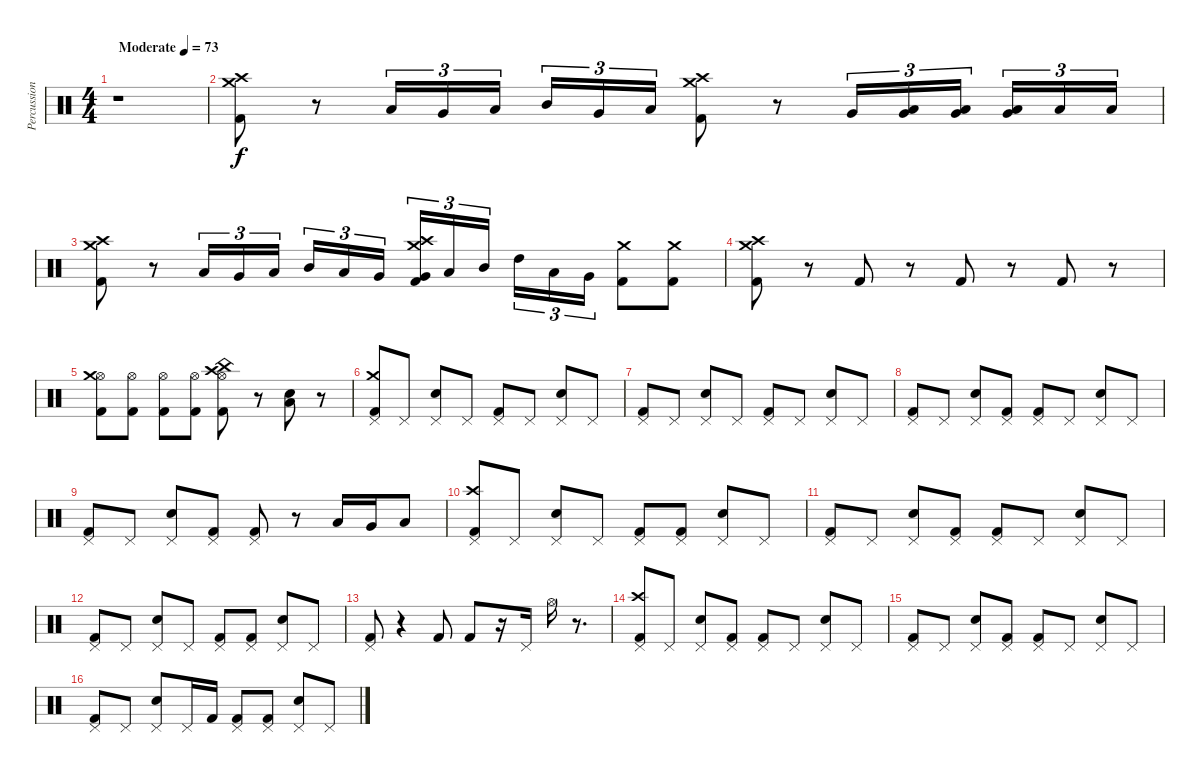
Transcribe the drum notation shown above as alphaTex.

\track ("Percussions" "Percussion") {instrument percussion}
\staff {score}
\articulation defaults
\ts (4 4)
\tempo (73 "Moderate")
\clef neutral
\ks c
r.1{dy f} |
("Kick (hit) 2" "Crash high (hit)" "Crash medium (hit)").8 r.8 "Low Floor Tom (hit)".16{tu (3 2)} "Very Low Tom (hit)".16{tu (3 2)} "Low Tom (hit)".16{tu (3 2) beam splitsecondary} "Mid Tom (hit)".16{tu (3 2)} "Very Low Tom (hit)".16{tu (3 2)} "Low Floor Tom (hit)".16{tu (3 2)} ("Kick (hit) 2" "Crash high (hit)" "Crash medium (hit)").8 r.8 "Very Low Tom (hit)".16{tu (3 2)} ("Very Low Tom (hit)" "Low Floor Tom (hit)").16{tu (3 2)} ("Low Tom (hit)" "Very Low Tom (hit)").16{tu (3 2) beam splitsecondary} ("Very Low Tom (hit)" "Low Floor Tom (hit)").16{tu (3 2)} "Low Tom (hit)".16{tu (3 2)} "Low Floor Tom (hit)".16{tu (3 2)} |
("Kick (hit) 2" "Crash high (hit)" "Crash medium (hit)").8 r.8 "Low Floor Tom (hit)".16{tu (3 2)} "Very Low Tom (hit)".16{tu (3 2)} "Low Tom (hit)".16{tu (3 2) beam splitsecondary} "Mid Tom (hit)".16{tu (3 2)} "Low Tom (hit)".16{tu (3 2)} "Very Low Tom (hit)".16{tu (3 2)} ("Kick (hit) 2" "Crash high (hit)" "Crash medium (hit)" "Very Low Tom (hit)").16{tu (3 2)} "Low Tom (hit)".16{tu (3 2)} "Mid Tom (hit)".16{tu (3 2) beam splitsecondary} "High Tom (hit)".16{tu (3 2)} "Low Tom (hit)".16{tu (3 2)} "Very Low Tom (hit)".16{tu (3 2)} ("Kick (hit) 2" "Crash medium (hit)").8 ("Kick (hit) 2" "Crash medium (hit)").8 |
("Kick (hit) 2" "Crash high (hit)" "Crash medium (hit)").8 r.8 "Kick (hit) 2".8 r.8 "Kick (hit) 2".8 r.8 "Kick (hit) 2".8 r.8 |
("Hi-Hat (open)" "Kick (hit) 2" "Crash medium (hit)").8 ("Hi-Hat (open)" "Kick (hit) 2").8 ("Hi-Hat (open)" "Kick (hit) 2").8 ("Hi-Hat (open)" "Kick (hit) 2").8 ("Crash high (hit)" "Hi-Hat (open)" "Kick (hit) 2" "China (hit)").8 r.8 ("Snare (hit) 2" "Low Floor Tom (hit)").8 r.8 |
("Pedal Hi-Hat (hit)" "Crash medium (hit)" "Kick (hit) 2").8 "Pedal Hi-Hat (hit)".8 ("Pedal Hi-Hat (hit)" "Electric Snare (hit)").8 "Pedal Hi-Hat (hit)".8 ("Pedal Hi-Hat (hit)" "Kick (hit) 2").8 "Pedal Hi-Hat (hit)".8 ("Pedal Hi-Hat (hit)" "Electric Snare (hit)").8 "Pedal Hi-Hat (hit)".8 |
("Pedal Hi-Hat (hit)" "Kick (hit) 2").8 "Pedal Hi-Hat (hit)".8 ("Pedal Hi-Hat (hit)" "Electric Snare (hit)").8 "Pedal Hi-Hat (hit)".8 ("Pedal Hi-Hat (hit)" "Kick (hit) 2").8 "Pedal Hi-Hat (hit)".8 ("Pedal Hi-Hat (hit)" "Electric Snare (hit)").8 "Pedal Hi-Hat (hit)".8 |
("Pedal Hi-Hat (hit)" "Kick (hit) 2").8 "Pedal Hi-Hat (hit)".8 ("Pedal Hi-Hat (hit)" "Electric Snare (hit)").8 ("Pedal Hi-Hat (hit)" "Kick (hit) 2").8 ("Pedal Hi-Hat (hit)" "Kick (hit) 2").8 "Pedal Hi-Hat (hit)".8 ("Pedal Hi-Hat (hit)" "Electric Snare (hit)").8 "Pedal Hi-Hat (hit)".8 |
("Pedal Hi-Hat (hit)" "Kick (hit) 2").8 "Pedal Hi-Hat (hit)".8 ("Pedal Hi-Hat (hit)" "Electric Snare (hit)").8 ("Pedal Hi-Hat (hit)" "Kick (hit) 2").8 ("Pedal Hi-Hat (hit)" "Kick (hit) 2").8 r.8 "Low Tom (hit)".16 "Very Low Tom (hit)".16 "Low Floor Tom (hit)".8 |
("Crash high (hit)" "Pedal Hi-Hat (hit)" "Kick (hit) 2").8 "Pedal Hi-Hat (hit)".8 ("Pedal Hi-Hat (hit)" "Electric Snare (hit)").8 "Pedal Hi-Hat (hit)".8 ("Pedal Hi-Hat (hit)" "Kick (hit) 2").8 ("Pedal Hi-Hat (hit)" "Kick (hit) 2").8 ("Pedal Hi-Hat (hit)" "Electric Snare (hit)").8 "Pedal Hi-Hat (hit)".8 |
("Pedal Hi-Hat (hit)" "Kick (hit) 2").8 "Pedal Hi-Hat (hit)".8 ("Pedal Hi-Hat (hit)" "Electric Snare (hit)").8 ("Pedal Hi-Hat (hit)" "Kick (hit) 2").8 ("Pedal Hi-Hat (hit)" "Kick (hit) 2").8 "Pedal Hi-Hat (hit)".8 ("Pedal Hi-Hat (hit)" "Electric Snare (hit)").8 "Pedal Hi-Hat (hit)".8 |
("Pedal Hi-Hat (hit)" "Kick (hit) 2").8 "Pedal Hi-Hat (hit)".8 ("Pedal Hi-Hat (hit)" "Electric Snare (hit)").8 "Pedal Hi-Hat (hit)".8 ("Pedal Hi-Hat (hit)" "Kick (hit) 2").8 ("Pedal Hi-Hat (hit)" "Kick (hit) 2").8 ("Pedal Hi-Hat (hit)" "Electric Snare (hit)").8 "Pedal Hi-Hat (hit)".8 |
("Pedal Hi-Hat (hit)" "Kick (hit) 2").8 r.4 "Kick (hit) 2".8 "Kick (hit) 2".8 r.16 "Pedal Hi-Hat (hit)".16 "Hi-Hat (open)".16 r.8{d} |
("Pedal Hi-Hat (hit)" "Crash high (hit)" "Kick (hit) 2").8 "Pedal Hi-Hat (hit)".8 ("Pedal Hi-Hat (hit)" "Electric Snare (hit)").8 ("Pedal Hi-Hat (hit)" "Kick (hit) 2").8 ("Pedal Hi-Hat (hit)" "Kick (hit) 2").8 "Pedal Hi-Hat (hit)".8 ("Pedal Hi-Hat (hit)" "Electric Snare (hit)").8 "Pedal Hi-Hat (hit)".8 |
("Pedal Hi-Hat (hit)" "Kick (hit) 2").8 "Pedal Hi-Hat (hit)".8 ("Pedal Hi-Hat (hit)" "Electric Snare (hit)").8 ("Pedal Hi-Hat (hit)" "Kick (hit) 2").8 ("Pedal Hi-Hat (hit)" "Kick (hit) 2").8 "Pedal Hi-Hat (hit)".8 ("Pedal Hi-Hat (hit)" "Electric Snare (hit)").8 "Pedal Hi-Hat (hit)".8 |
("Pedal Hi-Hat (hit)" "Kick (hit) 2").8 "Pedal Hi-Hat (hit)".8 ("Pedal Hi-Hat (hit)" "Electric Snare (hit)").8 "Pedal Hi-Hat (hit)".16 "Kick (hit) 2".16 ("Pedal Hi-Hat (hit)" "Kick (hit) 2").8 ("Pedal Hi-Hat (hit)" "Kick (hit) 2").8 ("Pedal Hi-Hat (hit)" "Electric Snare (hit)").8 "Pedal Hi-Hat (hit)".8
